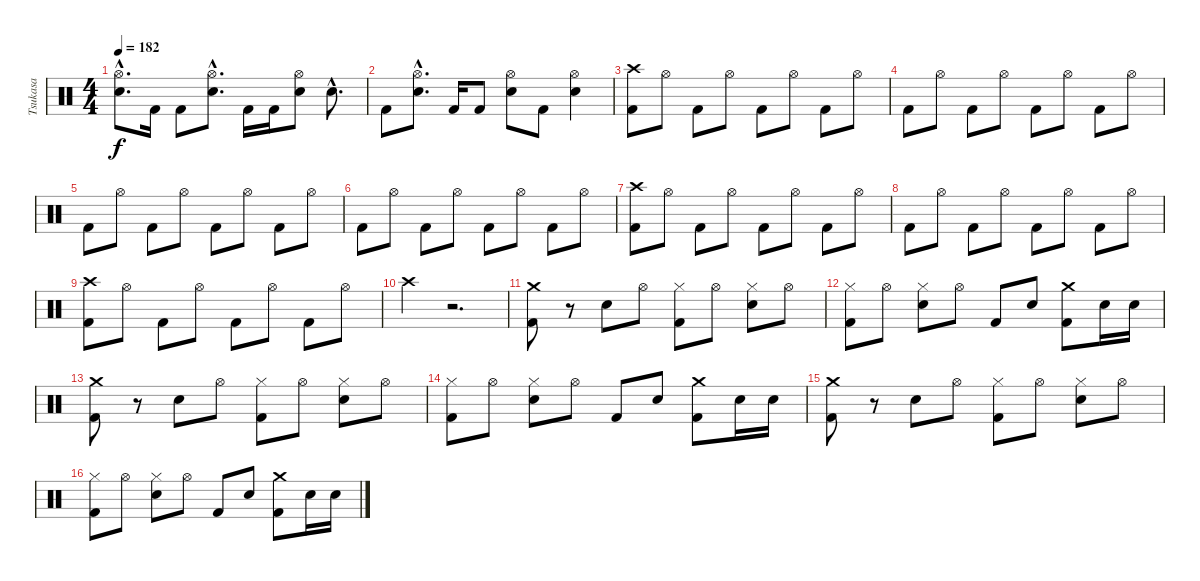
\track ("Tsukasa" "Tsukasa") {instrument percussion}
\staff {score}
\articulation defaults
\ts (4 4)
\tempo 182
\clef neutral
\ks c
("Snare (hit) 2"{hac} "Hi-Hat (open)"{hac}).8{d dy f} "Kick (hit) 2".16 "Kick (hit) 2".8 ("Snare (hit) 2"{hac} "Hi-Hat (open)"{hac}).8{d} "Kick (hit) 2".16 "Kick (hit) 2".16 ("Snare (hit) 2" "Hi-Hat (open)").8 "Snare (hit) 2"{hac}.8{d} |
"Kick (hit) 2".8 ("Snare (hit) 2"{hac} "Hi-Hat (open)"{hac}).8{d} "Kick (hit) 2".16 "Kick (hit) 2".8 ("Snare (hit) 2" "Hi-Hat (open)").8 "Kick (hit) 2".8 ("Snare (hit) 2" "Hi-Hat (open)").4 |
("Kick (hit) 2" "Crash high (hit)").8 "Hi-Hat (open)".8 "Kick (hit) 2".8 "Hi-Hat (open)".8 "Kick (hit) 2".8 "Hi-Hat (open)".8 "Kick (hit) 2".8 "Hi-Hat (open)".8 |
"Kick (hit) 2".8 "Hi-Hat (open)".8 "Kick (hit) 2".8 "Hi-Hat (open)".8 "Kick (hit) 2".8 "Hi-Hat (open)".8 "Kick (hit) 2".8 "Hi-Hat (open)".8 |
"Kick (hit) 2".8 "Hi-Hat (open)".8 "Kick (hit) 2".8 "Hi-Hat (open)".8 "Kick (hit) 2".8 "Hi-Hat (open)".8 "Kick (hit) 2".8 "Hi-Hat (open)".8 |
"Kick (hit) 2".8 "Hi-Hat (open)".8 "Kick (hit) 2".8 "Hi-Hat (open)".8 "Kick (hit) 2".8 "Hi-Hat (open)".8 "Kick (hit) 2".8 "Hi-Hat (open)".8 |
("Kick (hit) 2" "Crash high (hit)").8 "Hi-Hat (open)".8 "Kick (hit) 2".8 "Hi-Hat (open)".8 "Kick (hit) 2".8 "Hi-Hat (open)".8 "Kick (hit) 2".8 "Hi-Hat (open)".8 |
"Kick (hit) 2".8 "Hi-Hat (open)".8 "Kick (hit) 2".8 "Hi-Hat (open)".8 "Kick (hit) 2".8 "Hi-Hat (open)".8 "Kick (hit) 2".8 "Hi-Hat (open)".8 |
("Kick (hit) 2" "Crash high (hit)").8 "Hi-Hat (open)".8 "Kick (hit) 2".8 "Hi-Hat (open)".8 "Kick (hit) 2".8 "Hi-Hat (open)".8 "Kick (hit) 2".8 "Hi-Hat (open)".8 |
"Crash high (hit)".4 r.2{d} |
("Kick (hit) 2" "Crash medium (hit)").8 r.8 "Electric Snare (hit)".8 "Hi-Hat (open)".8 ("Kick (hit) 2" "Hi-Hat (closed)").8 "Hi-Hat (open)".8 ("Electric Snare (hit)" "Hi-Hat (closed)").8 "Hi-Hat (open)".8 |
("Kick (hit) 2" "Hi-Hat (closed)").8 "Hi-Hat (open)".8 ("Electric Snare (hit)" "Hi-Hat (closed)").8 "Hi-Hat (open)".8 "Kick (hit) 2".8 "Electric Snare (hit)".8 ("Kick (hit) 2" "Crash medium (hit)").8 "Electric Snare (hit)".16 "Electric Snare (hit)".16 |
("Kick (hit) 2" "Crash medium (hit)").8 r.8 "Electric Snare (hit)".8 "Hi-Hat (open)".8 ("Kick (hit) 2" "Hi-Hat (closed)").8 "Hi-Hat (open)".8 ("Electric Snare (hit)" "Hi-Hat (closed)").8 "Hi-Hat (open)".8 |
("Kick (hit) 2" "Hi-Hat (closed)").8 "Hi-Hat (open)".8 ("Electric Snare (hit)" "Hi-Hat (closed)").8 "Hi-Hat (open)".8 "Kick (hit) 2".8 "Electric Snare (hit)".8 ("Kick (hit) 2" "Crash medium (hit)").8 "Electric Snare (hit)".16 "Electric Snare (hit)".16 |
("Kick (hit) 2" "Crash medium (hit)").8 r.8 "Electric Snare (hit)".8 "Hi-Hat (open)".8 ("Kick (hit) 2" "Hi-Hat (closed)").8 "Hi-Hat (open)".8 ("Electric Snare (hit)" "Hi-Hat (closed)").8 "Hi-Hat (open)".8 |
("Kick (hit) 2" "Hi-Hat (closed)").8 "Hi-Hat (open)".8 ("Electric Snare (hit)" "Hi-Hat (closed)").8 "Hi-Hat (open)".8 "Kick (hit) 2".8 "Electric Snare (hit)".8 ("Kick (hit) 2" "Crash medium (hit)").8 "Electric Snare (hit)".16 "Electric Snare (hit)".16
